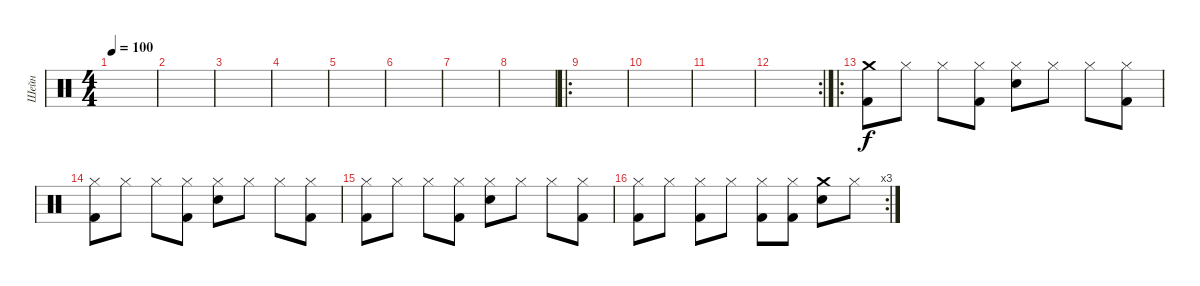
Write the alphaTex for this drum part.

\track ("Шейн" "Шейн") {instrument percussion}
\staff {score}
\articulation defaults
\ts (4 4)
\tempo 100
\clef neutral
\ks c
|
|
|
|
|
|
|
|
\ro
|
|
|
\rc 2
|
\ro
("Crash medium (hit)" "Kick (hit) 2").8 "Hi-Hat (closed)".8 "Hi-Hat (closed)".8 ("Kick (hit) 2" "Hi-Hat (closed)").8 ("Snare (hit) 2" "Hi-Hat (closed)").8 "Hi-Hat (closed)".8 "Hi-Hat (closed)".8 ("Kick (hit) 2" "Hi-Hat (closed)").8 |
("Kick (hit) 2" "Hi-Hat (closed)").8 "Hi-Hat (closed)".8 "Hi-Hat (closed)".8 ("Kick (hit) 2" "Hi-Hat (closed)").8 ("Snare (hit) 2" "Hi-Hat (closed)").8 "Hi-Hat (closed)".8 "Hi-Hat (closed)".8 ("Kick (hit) 2" "Hi-Hat (closed)").8 |
("Kick (hit) 2" "Hi-Hat (closed)").8 "Hi-Hat (closed)".8 "Hi-Hat (closed)".8 ("Kick (hit) 2" "Hi-Hat (closed)").8 ("Snare (hit) 2" "Hi-Hat (closed)").8 "Hi-Hat (closed)".8 "Hi-Hat (closed)".8 ("Kick (hit) 2" "Hi-Hat (closed)").8 |
\rc 3
("Kick (hit) 2" "Hi-Hat (closed)").8 "Hi-Hat (closed)".8 ("Kick (hit) 2" "Hi-Hat (closed)").8 "Hi-Hat (closed)".8 ("Kick (hit) 2" "Hi-Hat (closed)").8 ("Kick (hit) 2" "Hi-Hat (closed)").8 ("Snare (hit) 2" "Crash medium (hit)").8 "Hi-Hat (closed)".8
